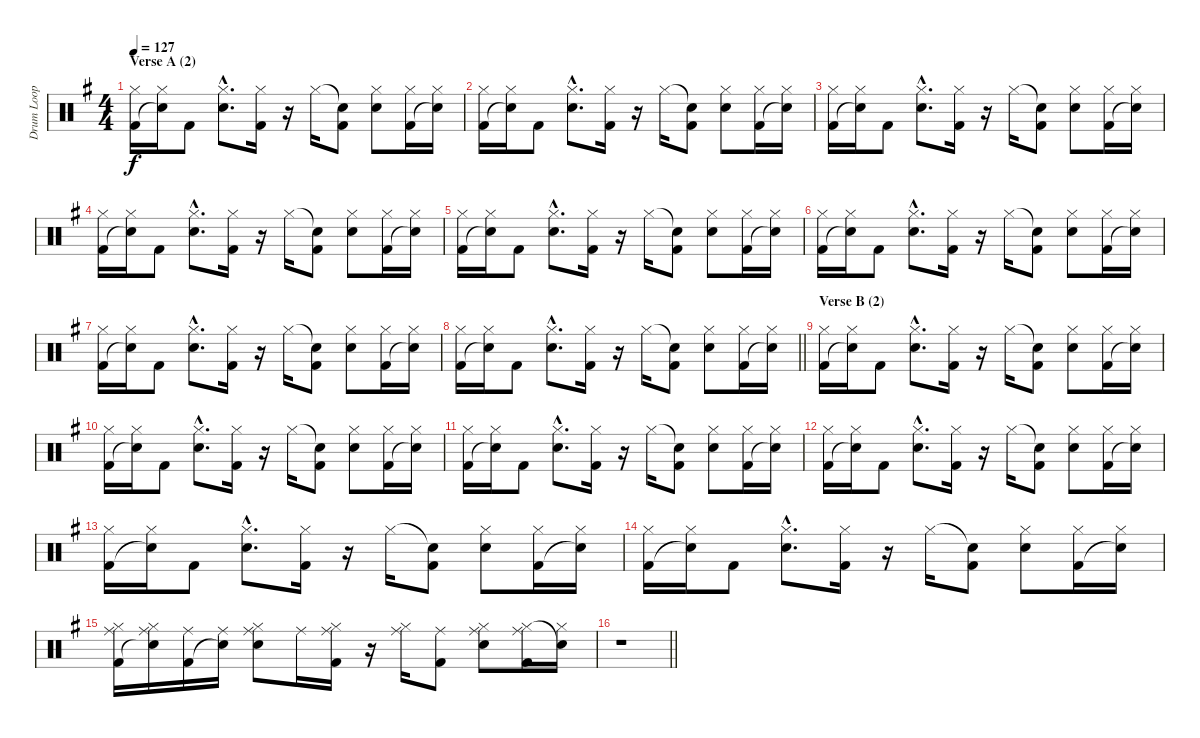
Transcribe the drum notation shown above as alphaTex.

\track ("Drum Loop" "Drum Loop") {instrument percussion}
\staff {score}
\articulation defaults
\ts (4 4)
\section ("" "Verse A (2)")
\tempo 127
\clef neutral
\ks eminor
("Hi-Hat (closed)" "Kick (hit) 2").16{dy f} ("Hi-Hat (closed)" "Snare (hit)"{t}).16 "Kick (hit) 2".8 ("Hi-Hat (closed)"{hac} "Electric Snare (hit)"{hac}).8{d} ("Hi-Hat (closed)" "Kick (hit) 2").16 r.16 "Hi-Hat (closed)".16 ("Snare (hit)"{t} "Kick (hit) 2").8 ("Hi-Hat (closed)" "Electric Snare (hit)").8 ("Hi-Hat (closed)" "Kick (hit) 2").16 ("Hi-Hat (closed)" "Snare (hit)"{t}).16 |
("Hi-Hat (closed)" "Kick (hit) 2").16 ("Hi-Hat (closed)" "Snare (hit)"{t}).16 "Kick (hit) 2".8 ("Hi-Hat (closed)"{hac} "Electric Snare (hit)"{hac}).8{d} ("Hi-Hat (closed)" "Kick (hit) 2").16 r.16 "Hi-Hat (closed)".16 ("Snare (hit)"{t} "Kick (hit) 2").8 ("Hi-Hat (closed)" "Electric Snare (hit)").8 ("Hi-Hat (closed)" "Kick (hit) 2").16 ("Hi-Hat (closed)" "Snare (hit)"{t}).16 |
("Hi-Hat (closed)" "Kick (hit) 2").16 ("Hi-Hat (closed)" "Snare (hit)"{t}).16 "Kick (hit) 2".8 ("Hi-Hat (closed)"{hac} "Electric Snare (hit)"{hac}).8{d} ("Hi-Hat (closed)" "Kick (hit) 2").16 r.16 "Hi-Hat (closed)".16 ("Snare (hit)"{t} "Kick (hit) 2").8 ("Hi-Hat (closed)" "Electric Snare (hit)").8 ("Hi-Hat (closed)" "Kick (hit) 2").16 ("Hi-Hat (closed)" "Snare (hit)"{t}).16 |
("Hi-Hat (closed)" "Kick (hit) 2").16 ("Hi-Hat (closed)" "Snare (hit)"{t}).16 "Kick (hit) 2".8 ("Hi-Hat (closed)"{hac} "Electric Snare (hit)"{hac}).8{d} ("Hi-Hat (closed)" "Kick (hit) 2").16 r.16 "Hi-Hat (closed)".16 ("Snare (hit)"{t} "Kick (hit) 2").8 ("Hi-Hat (closed)" "Electric Snare (hit)").8 ("Hi-Hat (closed)" "Kick (hit) 2").16 ("Hi-Hat (closed)" "Snare (hit)"{t}).16 |
("Hi-Hat (closed)" "Kick (hit) 2").16 ("Hi-Hat (closed)" "Snare (hit)"{t}).16 "Kick (hit) 2".8 ("Hi-Hat (closed)"{hac} "Electric Snare (hit)"{hac}).8{d} ("Hi-Hat (closed)" "Kick (hit) 2").16 r.16 "Hi-Hat (closed)".16 ("Snare (hit)"{t} "Kick (hit) 2").8 ("Hi-Hat (closed)" "Electric Snare (hit)").8 ("Hi-Hat (closed)" "Kick (hit) 2").16 ("Hi-Hat (closed)" "Snare (hit)"{t}).16 |
("Hi-Hat (closed)" "Kick (hit) 2").16 ("Hi-Hat (closed)" "Snare (hit)"{t}).16 "Kick (hit) 2".8 ("Hi-Hat (closed)"{hac} "Electric Snare (hit)"{hac}).8{d} ("Hi-Hat (closed)" "Kick (hit) 2").16 r.16 "Hi-Hat (closed)".16 ("Snare (hit)"{t} "Kick (hit) 2").8 ("Hi-Hat (closed)" "Electric Snare (hit)").8 ("Hi-Hat (closed)" "Kick (hit) 2").16 ("Hi-Hat (closed)" "Snare (hit)"{t}).16 |
("Hi-Hat (closed)" "Kick (hit) 2").16 ("Hi-Hat (closed)" "Snare (hit)"{t}).16 "Kick (hit) 2".8 ("Hi-Hat (closed)"{hac} "Electric Snare (hit)"{hac}).8{d} ("Hi-Hat (closed)" "Kick (hit) 2").16 r.16 "Hi-Hat (closed)".16 ("Snare (hit)"{t} "Kick (hit) 2").8 ("Hi-Hat (closed)" "Electric Snare (hit)").8 ("Hi-Hat (closed)" "Kick (hit) 2").16 ("Hi-Hat (closed)" "Snare (hit)"{t}).16 |
\barLineRight lightlight
("Hi-Hat (closed)" "Kick (hit) 2").16 ("Hi-Hat (closed)" "Snare (hit)"{t}).16 "Kick (hit) 2".8 ("Hi-Hat (closed)"{hac} "Electric Snare (hit)"{hac}).8{d} ("Hi-Hat (closed)" "Kick (hit) 2").16 r.16 "Hi-Hat (closed)".16 ("Snare (hit)"{t} "Kick (hit) 2").8 ("Hi-Hat (closed)" "Electric Snare (hit)").8 ("Hi-Hat (closed)" "Kick (hit) 2").16 ("Hi-Hat (closed)" "Snare (hit)"{t}).16 |
\section ("" "Verse B (2)")
("Hi-Hat (closed)" "Kick (hit) 2").16 ("Hi-Hat (closed)" "Snare (hit)"{t}).16 "Kick (hit) 2".8 ("Hi-Hat (closed)"{hac} "Electric Snare (hit)"{hac}).8{d} ("Hi-Hat (closed)" "Kick (hit) 2").16 r.16 "Hi-Hat (closed)".16 ("Snare (hit)"{t} "Kick (hit) 2").8 ("Hi-Hat (closed)" "Electric Snare (hit)").8 ("Hi-Hat (closed)" "Kick (hit) 2").16 ("Hi-Hat (closed)" "Snare (hit)"{t}).16 |
("Hi-Hat (closed)" "Kick (hit) 2").16 ("Hi-Hat (closed)" "Snare (hit)"{t}).16 "Kick (hit) 2".8 ("Hi-Hat (closed)"{hac} "Electric Snare (hit)"{hac}).8{d} ("Hi-Hat (closed)" "Kick (hit) 2").16 r.16 "Hi-Hat (closed)".16 ("Snare (hit)"{t} "Kick (hit) 2").8 ("Hi-Hat (closed)" "Electric Snare (hit)").8 ("Hi-Hat (closed)" "Kick (hit) 2").16 ("Hi-Hat (closed)" "Snare (hit)"{t}).16 |
("Hi-Hat (closed)" "Kick (hit) 2").16 ("Hi-Hat (closed)" "Snare (hit)"{t}).16 "Kick (hit) 2".8 ("Hi-Hat (closed)"{hac} "Electric Snare (hit)"{hac}).8{d} ("Hi-Hat (closed)" "Kick (hit) 2").16 r.16 "Hi-Hat (closed)".16 ("Snare (hit)"{t} "Kick (hit) 2").8 ("Hi-Hat (closed)" "Electric Snare (hit)").8 ("Hi-Hat (closed)" "Kick (hit) 2").16 ("Hi-Hat (closed)" "Snare (hit)"{t}).16 |
("Hi-Hat (closed)" "Kick (hit) 2").16 ("Hi-Hat (closed)" "Snare (hit)"{t}).16 "Kick (hit) 2".8 ("Hi-Hat (closed)"{hac} "Electric Snare (hit)"{hac}).8{d} ("Hi-Hat (closed)" "Kick (hit) 2").16 r.16 "Hi-Hat (closed)".16 ("Snare (hit)"{t} "Kick (hit) 2").8 ("Hi-Hat (closed)" "Electric Snare (hit)").8 ("Hi-Hat (closed)" "Kick (hit) 2").16 ("Hi-Hat (closed)" "Snare (hit)"{t}).16 |
("Hi-Hat (closed)" "Kick (hit) 2").16 ("Hi-Hat (closed)" "Snare (hit)"{t}).16 "Kick (hit) 2".8 ("Hi-Hat (closed)"{hac} "Electric Snare (hit)"{hac}).8{d} ("Hi-Hat (closed)" "Kick (hit) 2").16 r.16 "Hi-Hat (closed)".16 ("Snare (hit)"{t} "Kick (hit) 2").8 ("Hi-Hat (closed)" "Electric Snare (hit)").8 ("Hi-Hat (closed)" "Kick (hit) 2").16 ("Hi-Hat (closed)" "Snare (hit)"{t}).16 |
("Hi-Hat (closed)" "Kick (hit) 2").16 ("Hi-Hat (closed)" "Snare (hit)"{t}).16 "Kick (hit) 2".8 ("Hi-Hat (closed)"{hac} "Electric Snare (hit)"{hac}).8{d} ("Hi-Hat (closed)" "Kick (hit) 2").16 r.16 "Hi-Hat (closed)".16 ("Snare (hit)"{t} "Kick (hit) 2").8 ("Hi-Hat (closed)" "Electric Snare (hit)").8 ("Hi-Hat (closed)" "Kick (hit) 2").16 ("Hi-Hat (closed)" "Snare (hit)"{t}).16 |
("Ride (middle)" "Hi-Hat (closed)" "Kick (hit) 2").16 ("Ride (middle)" "Hi-Hat (closed)" "Snare (hit)"{t}).16 ("Ride (middle)" "Kick (hit) 2").16 ("Ride (middle)" "Snare (hit)"{t}).16 ("Ride (middle)" "Hi-Hat (closed)" "Electric Snare (hit)").8 "Ride (middle)".16 ("Ride (middle)" "Hi-Hat (closed)" "Kick (hit) 2").16 r.16 ("Ride (middle)" "Hi-Hat (closed)").16 ("Ride (middle)" "Kick (hit) 2").8 ("Ride (middle)" "Hi-Hat (closed)" "Electric Snare (hit)").8 ("Ride (middle)" "Hi-Hat (closed)" "Kick (hit) 2").16 ("Hi-Hat (closed)" "Snare (hit)"{t}).16 |
\barLineRight lightlight
r.1
